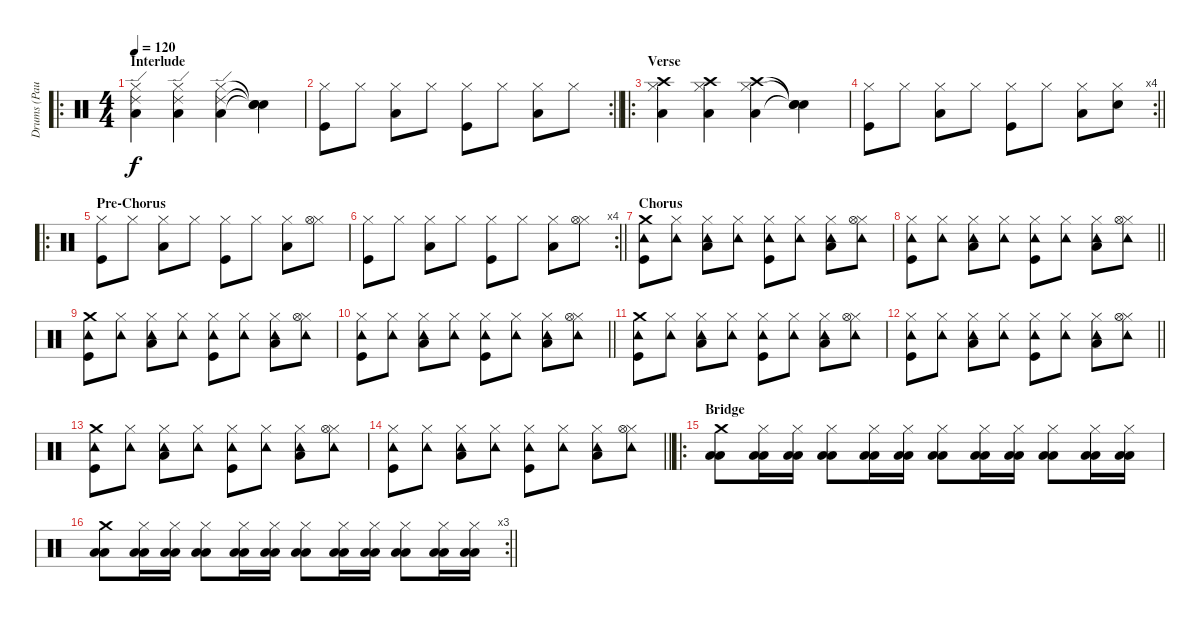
\track ("Drums (Paul Thomson)" "Drums (Pau") {instrument percussion}
\staff
\articulation defaults
\ro
\ts (4 4)
\section ("" "Interlude")
\tempo 120
\clef neutral
\ks c
("Hi-Hat (closed)" "Ride (edge) 2" "Low Floor Tom (hit)").4{dy f} ("Hi-Hat (closed)" "Ride (edge) 2" "Low Floor Tom (hit)").4 ("Hi-Hat (closed)" "Ride (edge) 2" "Low Floor Tom (hit)").4 ("Snare (hit)"{t} "Snare (hit)"{t} "Snare (hit)"{t}).4 |
\rc 2
\barLineRight lightlight
("Hi-Hat (closed)" "Kick (hit)").8 "Hi-Hat (closed)".8 ("Hi-Hat (closed)" "Low Floor Tom (hit)").8 "Hi-Hat (closed)".8 ("Hi-Hat (closed)" "Kick (hit)").8 "Hi-Hat (closed)".8 ("Hi-Hat (closed)" "Low Floor Tom (hit)").8 "Hi-Hat (closed)".8 |
\ro
\section ("" "Verse")
("Hi-Hat (closed)" "Crash high (hit)" "Low Floor Tom (hit)").4 ("Hi-Hat (closed)" "Crash high (hit)" "Low Floor Tom (hit)").4 ("Hi-Hat (closed)" "Crash high (hit)" "Low Floor Tom (hit)").4 ("Snare (hit)"{t} "Snare (hit)"{t} "Snare (hit)"{t}).4 |
\rc 4
\barLineRight lightlight
("Hi-Hat (closed)" "Kick (hit)").8 "Hi-Hat (closed)".8 ("Hi-Hat (closed)" "Low Floor Tom (hit)").8 "Hi-Hat (closed)".8 ("Hi-Hat (closed)" "Kick (hit)").8 "Hi-Hat (closed)".8 ("Hi-Hat (closed)" "Low Floor Tom (hit)").8 ("Hi-Hat (closed)" "Hand Clap (hit)").8 |
\ro
\section ("" "Pre-Chorus")
("Hi-Hat (closed)" "Kick (hit)").8 "Hi-Hat (closed)".8 ("Hi-Hat (closed)" "Low Floor Tom (hit)").8 "Hi-Hat (closed)".8 ("Hi-Hat (closed)" "Kick (hit)").8 "Hi-Hat (closed)".8 ("Hi-Hat (closed)" "Low Floor Tom (hit)").8 ("Hi-Hat (closed)" "Hi-Hat (open)").8 |
\rc 4
\barLineRight lightlight
("Hi-Hat (closed)" "Kick (hit)").8 "Hi-Hat (closed)".8 ("Hi-Hat (closed)" "Low Floor Tom (hit)").8 "Hi-Hat (closed)".8 ("Hi-Hat (closed)" "Kick (hit)").8 "Hi-Hat (closed)".8 ("Hi-Hat (closed)" "Low Floor Tom (hit)").8 ("Hi-Hat (closed)" "Hi-Hat (open)").8 |
\section ("" "Chorus")
("Crash medium (hit)" "Kick (hit)" "Tambourine (hit)").8 ("Hi-Hat (closed)" "Tambourine (hit)").8 ("Hi-Hat (closed)" "Low Floor Tom (hit)" "Tambourine (hit)").8 ("Hi-Hat (closed)" "Tambourine (hit)").8 ("Hi-Hat (closed)" "Kick (hit)" "Tambourine (hit)").8 ("Hi-Hat (closed)" "Tambourine (hit)").8 ("Hi-Hat (closed)" "Low Floor Tom (hit)" "Tambourine (hit)").8 ("Hi-Hat (closed)" "Hi-Hat (open)" "Tambourine (hit)").8 |
\barLineRight lightlight
("Hi-Hat (closed)" "Kick (hit)" "Tambourine (hit)").8 ("Hi-Hat (closed)" "Tambourine (hit)").8 ("Hi-Hat (closed)" "Low Floor Tom (hit)" "Tambourine (hit)").8 ("Hi-Hat (closed)" "Tambourine (hit)").8 ("Hi-Hat (closed)" "Kick (hit)" "Tambourine (hit)").8 ("Hi-Hat (closed)" "Tambourine (hit)").8 ("Hi-Hat (closed)" "Low Floor Tom (hit)" "Tambourine (hit)").8 ("Hi-Hat (closed)" "Hi-Hat (open)" "Tambourine (hit)").8 |
("Crash medium (hit)" "Kick (hit)" "Tambourine (hit)").8 ("Hi-Hat (closed)" "Tambourine (hit)").8 ("Hi-Hat (closed)" "Low Floor Tom (hit)" "Tambourine (hit)").8 ("Hi-Hat (closed)" "Tambourine (hit)").8 ("Hi-Hat (closed)" "Kick (hit)" "Tambourine (hit)").8 ("Hi-Hat (closed)" "Tambourine (hit)").8 ("Hi-Hat (closed)" "Low Floor Tom (hit)" "Tambourine (hit)").8 ("Hi-Hat (closed)" "Hi-Hat (open)" "Tambourine (hit)").8 |
\barLineRight lightlight
("Hi-Hat (closed)" "Kick (hit)" "Tambourine (hit)").8 ("Hi-Hat (closed)" "Tambourine (hit)").8 ("Hi-Hat (closed)" "Low Floor Tom (hit)" "Tambourine (hit)").8 ("Hi-Hat (closed)" "Tambourine (hit)").8 ("Hi-Hat (closed)" "Kick (hit)" "Tambourine (hit)").8 ("Hi-Hat (closed)" "Tambourine (hit)").8 ("Hi-Hat (closed)" "Low Floor Tom (hit)" "Tambourine (hit)").8 ("Hi-Hat (closed)" "Hi-Hat (open)" "Tambourine (hit)").8 |
("Crash medium (hit)" "Kick (hit)" "Tambourine (hit)").8 ("Hi-Hat (closed)" "Tambourine (hit)").8 ("Hi-Hat (closed)" "Low Floor Tom (hit)" "Tambourine (hit)").8 ("Hi-Hat (closed)" "Tambourine (hit)").8 ("Hi-Hat (closed)" "Kick (hit)" "Tambourine (hit)").8 ("Hi-Hat (closed)" "Tambourine (hit)").8 ("Hi-Hat (closed)" "Low Floor Tom (hit)" "Tambourine (hit)").8 ("Hi-Hat (closed)" "Hi-Hat (open)" "Tambourine (hit)").8 |
\barLineRight lightlight
("Hi-Hat (closed)" "Kick (hit)" "Tambourine (hit)").8 ("Hi-Hat (closed)" "Tambourine (hit)").8 ("Hi-Hat (closed)" "Low Floor Tom (hit)" "Tambourine (hit)").8 ("Hi-Hat (closed)" "Tambourine (hit)").8 ("Hi-Hat (closed)" "Kick (hit)" "Tambourine (hit)").8 ("Hi-Hat (closed)" "Tambourine (hit)").8 ("Hi-Hat (closed)" "Low Floor Tom (hit)" "Tambourine (hit)").8 ("Hi-Hat (closed)" "Hi-Hat (open)" "Tambourine (hit)").8 |
("Crash medium (hit)" "Kick (hit)" "Tambourine (hit)").8 ("Hi-Hat (closed)" "Tambourine (hit)").8 ("Hi-Hat (closed)" "Low Floor Tom (hit)" "Tambourine (hit)").8 ("Hi-Hat (closed)" "Tambourine (hit)").8 ("Hi-Hat (closed)" "Kick (hit)" "Tambourine (hit)").8 ("Hi-Hat (closed)" "Tambourine (hit)").8 ("Hi-Hat (closed)" "Low Floor Tom (hit)" "Tambourine (hit)").8 ("Hi-Hat (closed)" "Hi-Hat (open)" "Tambourine (hit)").8 |
\barLineRight lightlight
("Hi-Hat (closed)" "Kick (hit)" "Tambourine (hit)").8 ("Hi-Hat (closed)" "Tambourine (hit)").8 ("Hi-Hat (closed)" "Low Floor Tom (hit)" "Tambourine (hit)").8 ("Hi-Hat (closed)" "Tambourine (hit)").8 ("Hi-Hat (closed)" "Kick (hit)" "Tambourine (hit)").8 ("Hi-Hat (closed)" "Tambourine (hit)").8 ("Hi-Hat (closed)" "Low Floor Tom (hit)" "Tambourine (hit)").8 ("Hi-Hat (closed)" "Hi-Hat (open)" "Tambourine (hit)").8 |
\ro
\section ("" "Bridge")
("Crash medium (hit)" "Low Floor Tom (hit)" "Low Tom (hit)").8 ("Hi-Hat (closed)" "Low Floor Tom (hit)" "Low Tom (hit)").16 ("Hi-Hat (closed)" "Low Floor Tom (hit)" "Low Tom (hit)").16 ("Hi-Hat (closed)" "Low Floor Tom (hit)" "Low Tom (hit)").8 ("Hi-Hat (closed)" "Low Floor Tom (hit)" "Low Tom (hit)").16 ("Hi-Hat (closed)" "Low Floor Tom (hit)" "Low Tom (hit)").16 ("Hi-Hat (closed)" "Low Floor Tom (hit)" "Low Tom (hit)").8 ("Hi-Hat (closed)" "Low Floor Tom (hit)" "Low Tom (hit)").16 ("Hi-Hat (closed)" "Low Floor Tom (hit)" "Low Tom (hit)").16 ("Hi-Hat (closed)" "Low Floor Tom (hit)" "Low Tom (hit)").8 ("Hi-Hat (closed)" "Low Floor Tom (hit)" "Low Tom (hit)").16 ("Hi-Hat (closed)" "Low Floor Tom (hit)" "Low Tom (hit)").16 |
\rc 3
\barLineRight lightlight
("Crash medium (hit)" "Low Floor Tom (hit)" "Low Tom (hit)").8 ("Hi-Hat (closed)" "Low Floor Tom (hit)" "Low Tom (hit)").16 ("Hi-Hat (closed)" "Low Floor Tom (hit)" "Low Tom (hit)").16 ("Hi-Hat (closed)" "Low Floor Tom (hit)" "Low Tom (hit)").8 ("Hi-Hat (closed)" "Low Floor Tom (hit)" "Low Tom (hit)").16 ("Hi-Hat (closed)" "Low Floor Tom (hit)" "Low Tom (hit)").16 ("Hi-Hat (closed)" "Low Floor Tom (hit)" "Low Tom (hit)").8 ("Hi-Hat (closed)" "Low Floor Tom (hit)" "Low Tom (hit)").16 ("Hi-Hat (closed)" "Low Floor Tom (hit)" "Low Tom (hit)").16 ("Hi-Hat (closed)" "Low Floor Tom (hit)" "Low Tom (hit)").8 ("Hi-Hat (closed)" "Low Floor Tom (hit)" "Low Tom (hit)").16 ("Hi-Hat (closed)" "Low Floor Tom (hit)" "Low Tom (hit)").16
